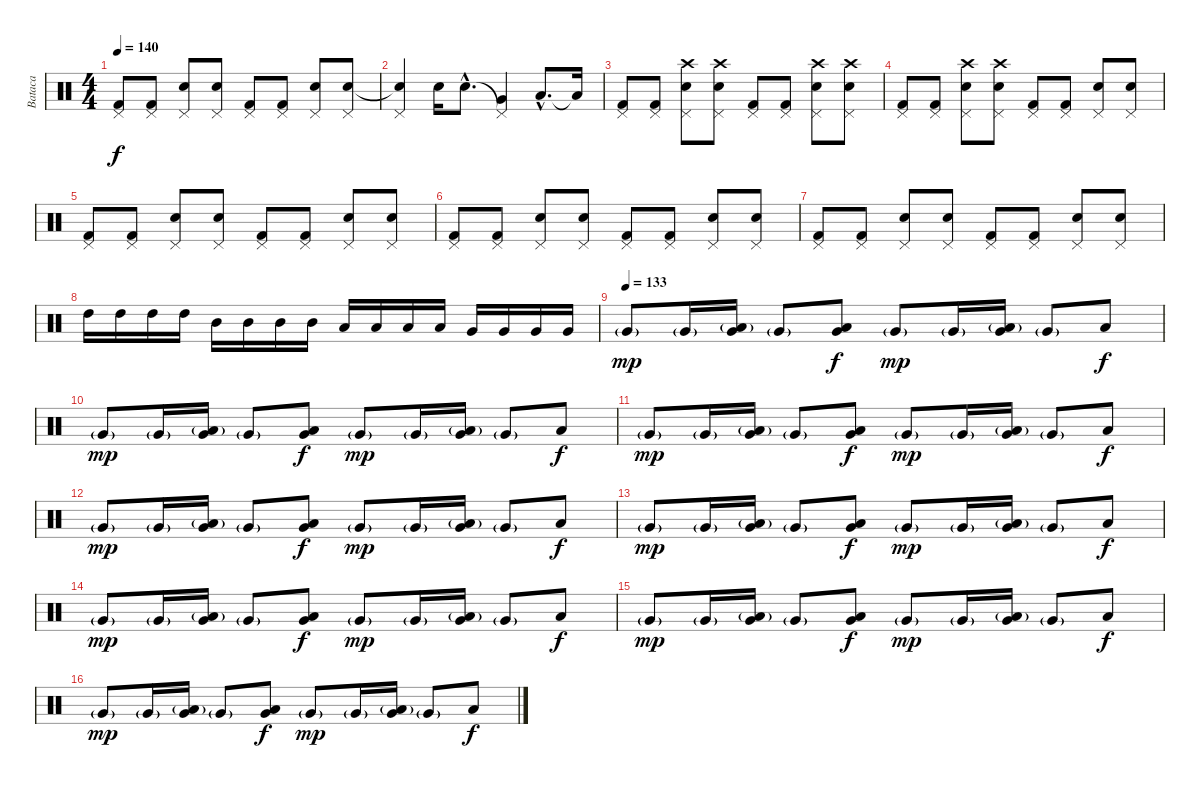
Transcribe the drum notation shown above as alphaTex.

\track ("Bataca" "Bataca") {instrument percussion}
\staff {score}
\articulation defaults
\ts (4 4)
\tempo 140
\clef neutral
\ks c
("Pedal Hi-Hat (hit)" "Kick (hit) 2").8{dy f} ("Pedal Hi-Hat (hit)" "Kick (hit) 2").8 ("Pedal Hi-Hat (hit)" "Electric Snare (hit)").8 ("Pedal Hi-Hat (hit)" "Electric Snare (hit)").8 ("Pedal Hi-Hat (hit)" "Kick (hit) 2").8 ("Pedal Hi-Hat (hit)" "Kick (hit) 2").8 ("Pedal Hi-Hat (hit)" "Electric Snare (hit)").8 ("Pedal Hi-Hat (hit)" "Electric Snare (hit)").8 |
("Pedal Hi-Hat (hit)" "Electric Snare (hit)"{t}).4 "Electric Snare (hit)".16 "Electric Snare (hit)"{hac}.8{d} ("Pedal Hi-Hat (hit)"{t} "Very Low Tom (hit)").4 "Low Floor Tom (hit)"{hac}.8{d} "Low Floor Tom (hit)"{t}.16 |
("Pedal Hi-Hat (hit)" "Kick (hit) 2").8 ("Pedal Hi-Hat (hit)" "Kick (hit) 2").8 ("Crash high (hit)" "Pedal Hi-Hat (hit)" "Electric Snare (hit)").8 ("Crash high (hit)" "Pedal Hi-Hat (hit)" "Electric Snare (hit)").8 ("Pedal Hi-Hat (hit)" "Kick (hit) 2").8 ("Pedal Hi-Hat (hit)" "Kick (hit) 2").8 ("Crash high (hit)" "Pedal Hi-Hat (hit)" "Electric Snare (hit)").8 ("Crash high (hit)" "Pedal Hi-Hat (hit)" "Electric Snare (hit)").8 |
("Pedal Hi-Hat (hit)" "Kick (hit) 2").8 ("Pedal Hi-Hat (hit)" "Kick (hit) 2").8 ("Crash high (hit)" "Pedal Hi-Hat (hit)" "Electric Snare (hit)").8 ("Crash high (hit)" "Pedal Hi-Hat (hit)" "Electric Snare (hit)").8 ("Pedal Hi-Hat (hit)" "Kick (hit) 2").8 ("Pedal Hi-Hat (hit)" "Kick (hit) 2").8 ("Pedal Hi-Hat (hit)" "Electric Snare (hit)").8 ("Pedal Hi-Hat (hit)" "Electric Snare (hit)").8 |
("Pedal Hi-Hat (hit)" "Kick (hit) 2").8 ("Pedal Hi-Hat (hit)" "Kick (hit) 2").8 ("Pedal Hi-Hat (hit)" "Electric Snare (hit)").8 ("Pedal Hi-Hat (hit)" "Electric Snare (hit)").8 ("Pedal Hi-Hat (hit)" "Kick (hit) 2").8 ("Pedal Hi-Hat (hit)" "Kick (hit) 2").8 ("Pedal Hi-Hat (hit)" "Electric Snare (hit)").8 ("Pedal Hi-Hat (hit)" "Electric Snare (hit)").8 |
("Pedal Hi-Hat (hit)" "Kick (hit) 2").8 ("Pedal Hi-Hat (hit)" "Kick (hit) 2").8 ("Pedal Hi-Hat (hit)" "Electric Snare (hit)").8 ("Pedal Hi-Hat (hit)" "Electric Snare (hit)").8 ("Pedal Hi-Hat (hit)" "Kick (hit) 2").8 ("Pedal Hi-Hat (hit)" "Kick (hit) 2").8 ("Pedal Hi-Hat (hit)" "Electric Snare (hit)").8 ("Pedal Hi-Hat (hit)" "Electric Snare (hit)").8 |
("Pedal Hi-Hat (hit)" "Kick (hit) 2").8 ("Pedal Hi-Hat (hit)" "Kick (hit) 2").8 ("Pedal Hi-Hat (hit)" "Electric Snare (hit)").8 ("Pedal Hi-Hat (hit)" "Electric Snare (hit)").8 ("Pedal Hi-Hat (hit)" "Kick (hit) 2").8 ("Pedal Hi-Hat (hit)" "Kick (hit) 2").8 ("Pedal Hi-Hat (hit)" "Electric Snare (hit)").8 ("Pedal Hi-Hat (hit)" "Electric Snare (hit)").8 |
"High Tom (hit)".16 "High Tom (hit)".16 "High Tom (hit)".16 "High Tom (hit)".16 "Mid Tom (hit)".16 "Mid Tom (hit)".16 "Mid Tom (hit)".16 "Mid Tom (hit)".16 "Low Tom (hit)".16 "Low Tom (hit)".16 "Low Tom (hit)".16 "Low Tom (hit)".16 "Very Low Tom (hit)".16 "Very Low Tom (hit)".16 "Very Low Tom (hit)".16 "Very Low Tom (hit)".16 |
\tempo (133)
"Very Low Tom (hit)"{g}.8{dy mp} "Very Low Tom (hit)"{g}.16 ("Low Floor Tom (hit)"{g} "Very Low Tom (hit)").16 "Very Low Tom (hit)"{g}.8 ("Low Floor Tom (hit)" "Very Low Tom (hit)").8{dy f} "Very Low Tom (hit)"{g}.8{dy mp} "Very Low Tom (hit)"{g}.16 ("Low Floor Tom (hit)"{g} "Very Low Tom (hit)").16 "Very Low Tom (hit)"{g}.8 "Low Floor Tom (hit)".8{dy f} |
"Very Low Tom (hit)"{g}.8{dy mp} "Very Low Tom (hit)"{g}.16 ("Low Floor Tom (hit)"{g} "Very Low Tom (hit)").16 "Very Low Tom (hit)"{g}.8 ("Low Floor Tom (hit)" "Very Low Tom (hit)").8{dy f} "Very Low Tom (hit)"{g}.8{dy mp} "Very Low Tom (hit)"{g}.16 ("Low Floor Tom (hit)"{g} "Very Low Tom (hit)").16 "Very Low Tom (hit)"{g}.8 "Low Floor Tom (hit)".8{dy f} |
"Very Low Tom (hit)"{g}.8{dy mp} "Very Low Tom (hit)"{g}.16 ("Low Floor Tom (hit)"{g} "Very Low Tom (hit)").16 "Very Low Tom (hit)"{g}.8 ("Low Floor Tom (hit)" "Very Low Tom (hit)").8{dy f} "Very Low Tom (hit)"{g}.8{dy mp} "Very Low Tom (hit)"{g}.16 ("Low Floor Tom (hit)"{g} "Very Low Tom (hit)").16 "Very Low Tom (hit)"{g}.8 "Low Floor Tom (hit)".8{dy f} |
"Very Low Tom (hit)"{g}.8{dy mp} "Very Low Tom (hit)"{g}.16 ("Low Floor Tom (hit)"{g} "Very Low Tom (hit)").16 "Very Low Tom (hit)"{g}.8 ("Low Floor Tom (hit)" "Very Low Tom (hit)").8{dy f} "Very Low Tom (hit)"{g}.8{dy mp} "Very Low Tom (hit)"{g}.16 ("Low Floor Tom (hit)"{g} "Very Low Tom (hit)").16 "Very Low Tom (hit)"{g}.8 "Low Floor Tom (hit)".8{dy f} |
"Very Low Tom (hit)"{g}.8{dy mp} "Very Low Tom (hit)"{g}.16 ("Low Floor Tom (hit)"{g} "Very Low Tom (hit)").16 "Very Low Tom (hit)"{g}.8 ("Low Floor Tom (hit)" "Very Low Tom (hit)").8{dy f} "Very Low Tom (hit)"{g}.8{dy mp} "Very Low Tom (hit)"{g}.16 ("Low Floor Tom (hit)"{g} "Very Low Tom (hit)").16 "Very Low Tom (hit)"{g}.8 "Low Floor Tom (hit)".8{dy f} |
"Very Low Tom (hit)"{g}.8{dy mp} "Very Low Tom (hit)"{g}.16 ("Low Floor Tom (hit)"{g} "Very Low Tom (hit)").16 "Very Low Tom (hit)"{g}.8 ("Low Floor Tom (hit)" "Very Low Tom (hit)").8{dy f} "Very Low Tom (hit)"{g}.8{dy mp} "Very Low Tom (hit)"{g}.16 ("Low Floor Tom (hit)"{g} "Very Low Tom (hit)").16 "Very Low Tom (hit)"{g}.8 "Low Floor Tom (hit)".8{dy f} |
"Very Low Tom (hit)"{g}.8{dy mp} "Very Low Tom (hit)"{g}.16 ("Low Floor Tom (hit)"{g} "Very Low Tom (hit)").16 "Very Low Tom (hit)"{g}.8 ("Low Floor Tom (hit)" "Very Low Tom (hit)").8{dy f} "Very Low Tom (hit)"{g}.8{dy mp} "Very Low Tom (hit)"{g}.16 ("Low Floor Tom (hit)"{g} "Very Low Tom (hit)").16 "Very Low Tom (hit)"{g}.8 "Low Floor Tom (hit)".8{dy f} |
"Very Low Tom (hit)"{g}.8{dy mp} "Very Low Tom (hit)"{g}.16 ("Low Floor Tom (hit)"{g} "Very Low Tom (hit)").16 "Very Low Tom (hit)"{g}.8 ("Low Floor Tom (hit)" "Very Low Tom (hit)").8{dy f} "Very Low Tom (hit)"{g}.8{dy mp} "Very Low Tom (hit)"{g}.16 ("Low Floor Tom (hit)"{g} "Very Low Tom (hit)").16 "Very Low Tom (hit)"{g}.8 "Low Floor Tom (hit)".8{dy f}
